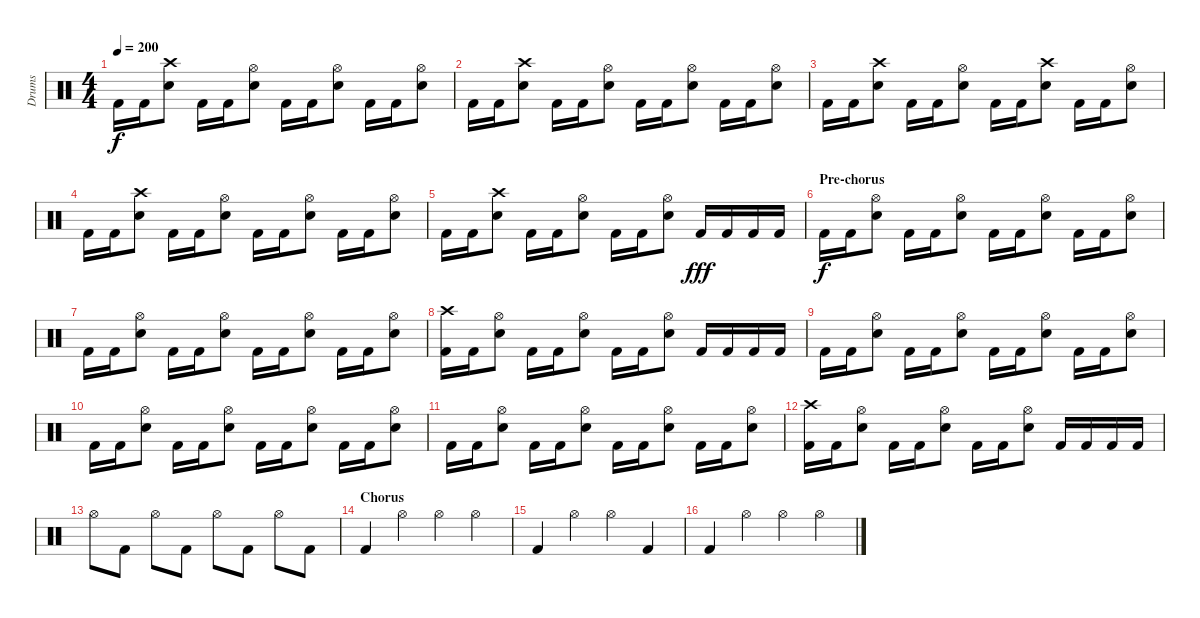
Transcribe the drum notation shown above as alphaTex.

\track ("Drums" "Drums") {instrument percussion}
\staff {score}
\articulation defaults
\ts (4 4)
\tempo 200
\clef neutral
\ks c "Kick (hit) 2".16{dy f} "Kick (hit) 2".16
("Crash high (hit)" "Snare (hit) 2").8 "Kick (hit) 2".16 "Kick (hit) 2".16 ("Hi-Hat (open)" "Snare (hit) 2").8 "Kick (hit) 2".16 "Kick (hit) 2".16 ("Hi-Hat (open)" "Snare (hit) 2").8 "Kick (hit) 2".16 "Kick (hit) 2".16 ("Hi-Hat (open)" "Snare (hit) 2").8 |
"Kick (hit) 2".16 "Kick (hit) 2".16 ("Crash high (hit)" "Snare (hit) 2").8 "Kick (hit) 2".16 "Kick (hit) 2".16 ("Hi-Hat (open)" "Snare (hit) 2").8 "Kick (hit) 2".16 "Kick (hit) 2".16 ("Hi-Hat (open)" "Snare (hit) 2").8 "Kick (hit) 2".16 "Kick (hit) 2".16 ("Hi-Hat (open)" "Snare (hit) 2").8 |
"Kick (hit) 2".16 "Kick (hit) 2".16 ("Crash high (hit)" "Snare (hit) 2").8 "Kick (hit) 2".16 "Kick (hit) 2".16 ("Hi-Hat (open)" "Snare (hit) 2").8 "Kick (hit) 2".16 "Kick (hit) 2".16 ("Crash high (hit)" "Snare (hit) 2").8 "Kick (hit) 2".16 "Kick (hit) 2".16 ("Hi-Hat (open)" "Snare (hit) 2").8 |
"Kick (hit) 2".16 "Kick (hit) 2".16 ("Crash high (hit)" "Snare (hit) 2").8 "Kick (hit) 2".16 "Kick (hit) 2".16 ("Hi-Hat (open)" "Snare (hit) 2").8 "Kick (hit) 2".16 "Kick (hit) 2".16 ("Hi-Hat (open)" "Snare (hit) 2").8 "Kick (hit) 2".16 "Kick (hit) 2".16 ("Hi-Hat (open)" "Snare (hit) 2").8 |
"Kick (hit) 2".16 "Kick (hit) 2".16 ("Crash high (hit)" "Snare (hit) 2").8 "Kick (hit) 2".16 "Kick (hit) 2".16 ("Hi-Hat (open)" "Snare (hit) 2").8 "Kick (hit) 2".16 "Kick (hit) 2".16 ("Hi-Hat (open)" "Snare (hit) 2").8 "Kick (hit) 2".16{dy fff} "Kick (hit) 2".16 "Kick (hit) 2".16 "Kick (hit) 2".16 |
\section ("" "Pre-chorus")
"Kick (hit) 2".16{dy f} "Kick (hit) 2".16 ("Hi-Hat (open)" "Snare (hit) 2").8 "Kick (hit) 2".16 "Kick (hit) 2".16 ("Hi-Hat (open)" "Snare (hit) 2").8 "Kick (hit) 2".16 "Kick (hit) 2".16 ("Hi-Hat (open)" "Snare (hit) 2").8 "Kick (hit) 2".16 "Kick (hit) 2".16 ("Hi-Hat (open)" "Snare (hit) 2").8 |
"Kick (hit) 2".16 "Kick (hit) 2".16 ("Hi-Hat (open)" "Snare (hit) 2").8 "Kick (hit) 2".16 "Kick (hit) 2".16 ("Hi-Hat (open)" "Snare (hit) 2").8 "Kick (hit) 2".16 "Kick (hit) 2".16 ("Hi-Hat (open)" "Snare (hit) 2").8 "Kick (hit) 2".16 "Kick (hit) 2".16 ("Hi-Hat (open)" "Snare (hit) 2").8 |
("Crash high (hit)" "Kick (hit) 2").16 "Kick (hit) 2".16 ("Hi-Hat (open)" "Snare (hit) 2").8 "Kick (hit) 2".16 "Kick (hit) 2".16 ("Hi-Hat (open)" "Snare (hit) 2").8 "Kick (hit) 2".16 "Kick (hit) 2".16 ("Hi-Hat (open)" "Snare (hit) 2").8 "Kick (hit) 2".16 "Kick (hit) 2".16 "Kick (hit) 2".16 "Kick (hit) 2".16 |
"Kick (hit) 2".16 "Kick (hit) 2".16 ("Hi-Hat (open)" "Snare (hit) 2").8 "Kick (hit) 2".16 "Kick (hit) 2".16 ("Hi-Hat (open)" "Snare (hit) 2").8 "Kick (hit) 2".16 "Kick (hit) 2".16 ("Hi-Hat (open)" "Snare (hit) 2").8 "Kick (hit) 2".16 "Kick (hit) 2".16 ("Hi-Hat (open)" "Snare (hit) 2").8 |
"Kick (hit) 2".16 "Kick (hit) 2".16 ("Hi-Hat (open)" "Snare (hit) 2").8 "Kick (hit) 2".16 "Kick (hit) 2".16 ("Hi-Hat (open)" "Snare (hit) 2").8 "Kick (hit) 2".16 "Kick (hit) 2".16 ("Hi-Hat (open)" "Snare (hit) 2").8 "Kick (hit) 2".16 "Kick (hit) 2".16 ("Hi-Hat (open)" "Snare (hit) 2").8 |
"Kick (hit) 2".16 "Kick (hit) 2".16 ("Hi-Hat (open)" "Snare (hit) 2").8 "Kick (hit) 2".16 "Kick (hit) 2".16 ("Hi-Hat (open)" "Snare (hit) 2").8 "Kick (hit) 2".16 "Kick (hit) 2".16 ("Hi-Hat (open)" "Snare (hit) 2").8 "Kick (hit) 2".16 "Kick (hit) 2".16 ("Hi-Hat (open)" "Snare (hit) 2").8 |
("Crash high (hit)" "Kick (hit) 2").16 "Kick (hit) 2".16 ("Hi-Hat (open)" "Snare (hit) 2").8 "Kick (hit) 2".16 "Kick (hit) 2".16 ("Hi-Hat (open)" "Snare (hit) 2").8 "Kick (hit) 2".16 "Kick (hit) 2".16 ("Hi-Hat (open)" "Snare (hit) 2").8 "Kick (hit) 2".16 "Kick (hit) 2".16 "Kick (hit) 2".16 "Kick (hit) 2".16 |
"Hi-Hat (open)".8 "Kick (hit) 2".8 "Hi-Hat (open)".8 "Kick (hit) 2".8 "Hi-Hat (open)".8 "Kick (hit) 2".8 "Hi-Hat (open)".8 "Kick (hit) 2".8 |
\section ("" "Chorus")
"Kick (hit) 2".4 "Hi-Hat (open)".4 "Hi-Hat (open)".4 "Hi-Hat (open)".4 |
"Kick (hit) 2".4 "Hi-Hat (open)".4 "Hi-Hat (open)".4 "Kick (hit) 2".4 |
"Kick (hit) 2".4 "Hi-Hat (open)".4 "Hi-Hat (open)".4 "Hi-Hat (open)".4
